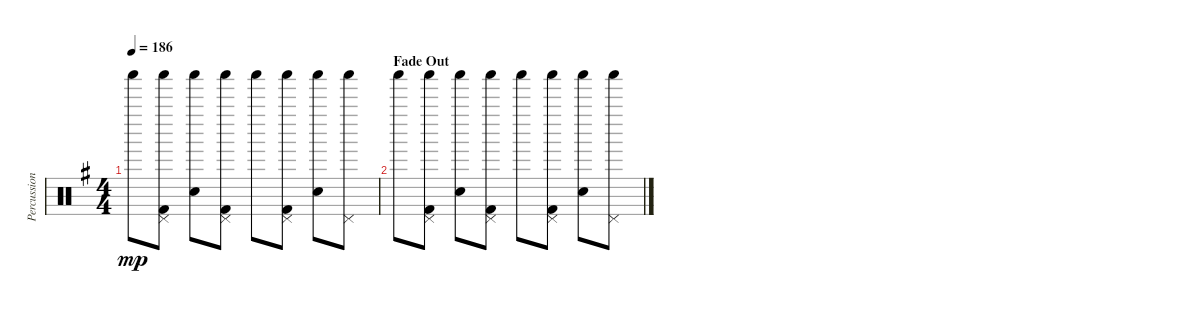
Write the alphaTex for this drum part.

\track ("Percussion" "Percussion") {instrument percussion}
\staff {score}
\articulation defaults
\ts (4 4)
\tempo 186
\clef neutral
\ks g "Shaker (hit)".8{dy mp}
("Shaker (hit)" "Pedal Hi-Hat (hit)" "Kick (hit) 2").8 ("Shaker (hit)" "Electric Snare (hit)").8 ("Shaker (hit)" "Pedal Hi-Hat (hit)" "Kick (hit) 2").8 "Shaker (hit)".8 ("Shaker (hit)" "Pedal Hi-Hat (hit)" "Kick (hit) 2").8 ("Shaker (hit)" "Electric Snare (hit)").8 ("Shaker (hit)" "Pedal Hi-Hat (hit)").8 |
\section ("" "Fade Out")
"Shaker (hit)".8 ("Shaker (hit)" "Pedal Hi-Hat (hit)" "Kick (hit) 2").8 ("Shaker (hit)" "Electric Snare (hit)").8 ("Shaker (hit)" "Pedal Hi-Hat (hit)" "Kick (hit) 2").8 "Shaker (hit)".8 ("Shaker (hit)" "Pedal Hi-Hat (hit)" "Kick (hit) 2").8 ("Shaker (hit)" "Electric Snare (hit)").8 ("Shaker (hit)" "Pedal Hi-Hat (hit)").8
